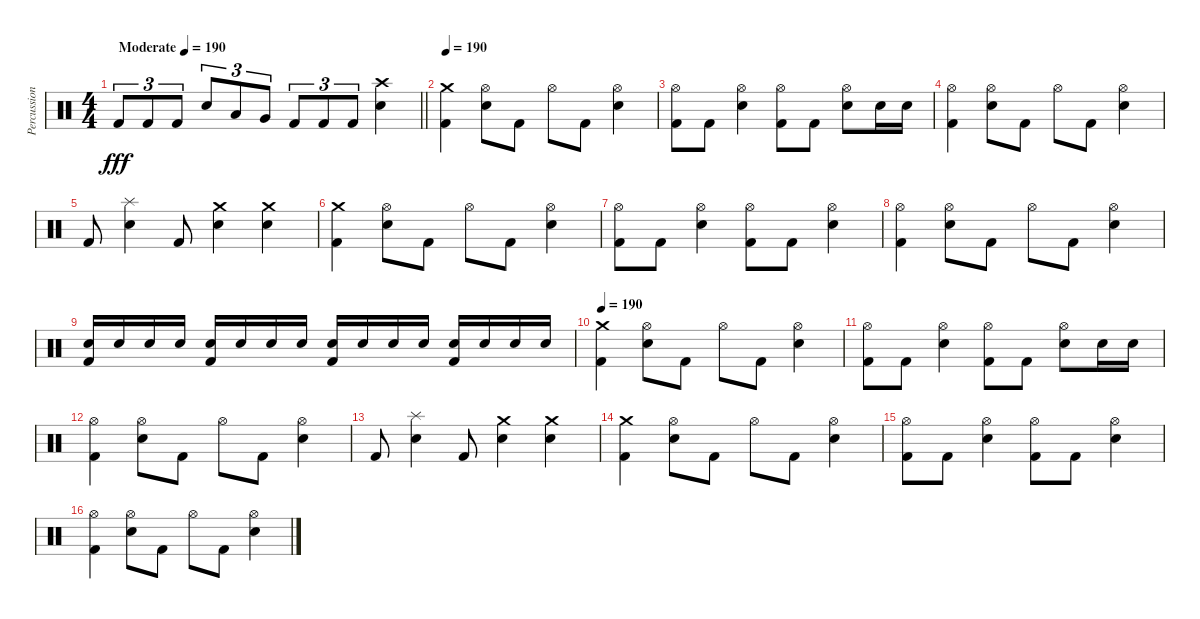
\track ("Percussion" "Percussion") {instrument percussion}
\staff {score}
\articulation defaults
\ts (4 4)
\tempo (190 "Moderate")
\tempo 210
\tempo (190 "Moderate")
\clef neutral
\barLineRight lightlight
\ks c "Kick (hit) 2".8{tu (3 2) dy fff} "Kick (hit) 2".8{tu (3 2)} "Kick (hit) 2".8{tu (3 2)} "Electric Snare (hit)".8{tu (3 2)} "Low Tom (hit)".8{tu (3 2)} "Very Low Tom (hit)".8{tu (3 2)} "Kick (hit) 2".8{tu (3 2)} "Kick (hit) 2".8{tu (3 2)} "Kick (hit) 2".8{tu (3 2)}
("Crash high (hit)" "Electric Snare (hit)").4 |
\tempo 190
("Crash medium (hit)" "Kick (hit) 2").4 ("Hi-Hat (open)" "Electric Snare (hit)").8 "Kick (hit) 2".8 "Hi-Hat (open)".8 "Kick (hit) 2".8 ("Hi-Hat (open)" "Electric Snare (hit)").4 |
("Hi-Hat (open)" "Kick (hit) 2").8 "Kick (hit) 2".8 ("Hi-Hat (open)" "Electric Snare (hit)").4 ("Hi-Hat (open)" "Kick (hit) 2").8 "Kick (hit) 2".8 ("Hi-Hat (open)" "Electric Snare (hit)").8 "Electric Snare (hit)".16 "Electric Snare (hit)".16 |
("Hi-Hat (open)" "Kick (hit) 2").4 ("Hi-Hat (open)" "Electric Snare (hit)").8 "Kick (hit) 2".8 "Hi-Hat (open)".8 "Kick (hit) 2".8 ("Hi-Hat (open)" "Electric Snare (hit)").4 |
"Kick (hit) 2".8 ("Splash (hit)" "Electric Snare (hit)").4 "Kick (hit) 2".8 ("Crash medium (hit)" "Electric Snare (hit)").4 ("Crash medium (hit)" "Electric Snare (hit)").4 |
("Crash medium (hit)" "Kick (hit) 2").4 ("Hi-Hat (open)" "Electric Snare (hit)").8 "Kick (hit) 2".8 "Hi-Hat (open)".8 "Kick (hit) 2".8 ("Hi-Hat (open)" "Electric Snare (hit)").4 |
("Hi-Hat (open)" "Kick (hit) 2").8 "Kick (hit) 2".8 ("Hi-Hat (open)" "Electric Snare (hit)").4 ("Hi-Hat (open)" "Kick (hit) 2").8 "Kick (hit) 2".8 ("Hi-Hat (open)" "Electric Snare (hit)").4 |
("Hi-Hat (open)" "Kick (hit) 2").4 ("Hi-Hat (open)" "Electric Snare (hit)").8 "Kick (hit) 2".8 "Hi-Hat (open)".8 "Kick (hit) 2".8 ("Hi-Hat (open)" "Electric Snare (hit)").4 |
("Electric Snare (hit)" "Kick (hit) 2").16 "Electric Snare (hit)".16 "Electric Snare (hit)".16 "Electric Snare (hit)".16 ("Electric Snare (hit)" "Kick (hit) 2").16 "Electric Snare (hit)".16 "Electric Snare (hit)".16 "Electric Snare (hit)".16 ("Electric Snare (hit)" "Kick (hit) 2").16 "Electric Snare (hit)".16 "Electric Snare (hit)".16 "Electric Snare (hit)".16 ("Electric Snare (hit)" "Kick (hit) 2").16 "Electric Snare (hit)".16 "Electric Snare (hit)".16 "Electric Snare (hit)".16 |
\tempo 190
("Crash medium (hit)" "Kick (hit) 2").4 ("Hi-Hat (open)" "Electric Snare (hit)").8 "Kick (hit) 2".8 "Hi-Hat (open)".8 "Kick (hit) 2".8 ("Hi-Hat (open)" "Electric Snare (hit)").4 |
("Hi-Hat (open)" "Kick (hit) 2").8 "Kick (hit) 2".8 ("Hi-Hat (open)" "Electric Snare (hit)").4 ("Hi-Hat (open)" "Kick (hit) 2").8 "Kick (hit) 2".8 ("Hi-Hat (open)" "Electric Snare (hit)").8 "Electric Snare (hit)".16 "Electric Snare (hit)".16 |
("Hi-Hat (open)" "Kick (hit) 2").4 ("Hi-Hat (open)" "Electric Snare (hit)").8 "Kick (hit) 2".8 "Hi-Hat (open)".8 "Kick (hit) 2".8 ("Hi-Hat (open)" "Electric Snare (hit)").4 |
"Kick (hit) 2".8 ("Splash (hit)" "Electric Snare (hit)").4 "Kick (hit) 2".8 ("Crash medium (hit)" "Electric Snare (hit)").4 ("Crash medium (hit)" "Electric Snare (hit)").4 |
("Crash medium (hit)" "Kick (hit) 2").4 ("Hi-Hat (open)" "Electric Snare (hit)").8 "Kick (hit) 2".8 "Hi-Hat (open)".8 "Kick (hit) 2".8 ("Hi-Hat (open)" "Electric Snare (hit)").4 |
("Hi-Hat (open)" "Kick (hit) 2").8 "Kick (hit) 2".8 ("Hi-Hat (open)" "Electric Snare (hit)").4 ("Hi-Hat (open)" "Kick (hit) 2").8 "Kick (hit) 2".8 ("Hi-Hat (open)" "Electric Snare (hit)").4 |
("Hi-Hat (open)" "Kick (hit) 2").4 ("Hi-Hat (open)" "Electric Snare (hit)").8 "Kick (hit) 2".8 "Hi-Hat (open)".8 "Kick (hit) 2".8 ("Hi-Hat (open)" "Electric Snare (hit)").4
